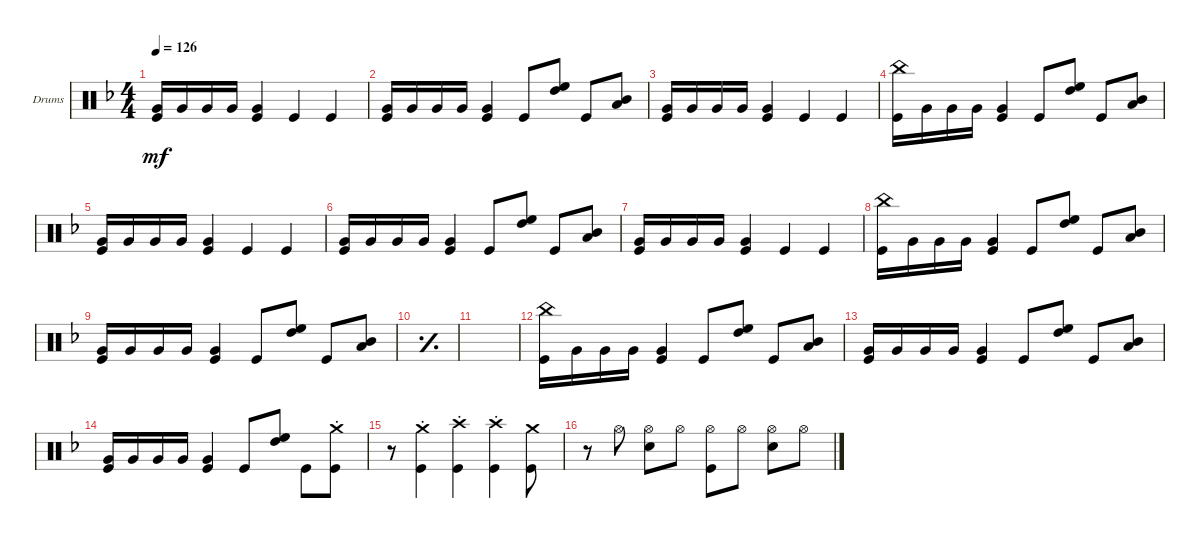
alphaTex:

\defaultSystemsLayout 4
\bracketExtendMode groupsimilarinstruments
\firstSystemTrackNameOrientation horizontal
\otherSystemsTrackNameOrientation horizontal
\track ("Drumkit" "Drums") {instrument percussion}
\staff {score}
\articulation defaults
\ts (4 4)
\tempo 126
\clef neutral
\ks f
("Kick (hit)" "Very Low Tom (hit)").16{dy mf} "Very Low Tom (hit)".16 "Very Low Tom (hit)".16 "Very Low Tom (hit)".16 ("Very Low Tom (hit)" "Kick (hit)").4 "Kick (hit)".4 "Kick (hit)".4 |
("Kick (hit)" "Very Low Tom (hit)").16 "Very Low Tom (hit)".16 "Very Low Tom (hit)".16 "Very Low Tom (hit)".16 ("Kick (hit)" "Very Low Tom (hit)").4 "Kick (hit)".8 ("High Floor Tom (hit)" "High Tom (hit)").8 "Kick (hit)".8 ("Mid Tom (hit)" "Low Tom (hit)").8 |
("Kick (hit)" "Very Low Tom (hit)").16 "Very Low Tom (hit)".16 "Very Low Tom (hit)".16 "Very Low Tom (hit)".16 ("Very Low Tom (hit)" "Kick (hit)").4 "Kick (hit)".4 "Kick (hit)".4 |
("China (hit)" "Kick (hit)").16 "Very Low Tom (hit)".16 "Very Low Tom (hit)".16 "Very Low Tom (hit)".16 ("Kick (hit)" "Very Low Tom (hit)").4 "Kick (hit)".8 ("High Floor Tom (hit)" "High Tom (hit)").8 "Kick (hit)".8 ("Mid Tom (hit)" "Low Tom (hit)").8 |
("Kick (hit)" "Very Low Tom (hit)").16 "Very Low Tom (hit)".16 "Very Low Tom (hit)".16 "Very Low Tom (hit)".16 ("Very Low Tom (hit)" "Kick (hit)").4 "Kick (hit)".4 "Kick (hit)".4 |
("Kick (hit)" "Very Low Tom (hit)").16 "Very Low Tom (hit)".16 "Very Low Tom (hit)".16 "Very Low Tom (hit)".16 ("Kick (hit)" "Very Low Tom (hit)").4 "Kick (hit)".8 ("High Floor Tom (hit)" "High Tom (hit)").8 "Kick (hit)".8 ("Mid Tom (hit)" "Low Tom (hit)").8 |
("Kick (hit)" "Very Low Tom (hit)").16 "Very Low Tom (hit)".16 "Very Low Tom (hit)".16 "Very Low Tom (hit)".16 ("Very Low Tom (hit)" "Kick (hit)").4 "Kick (hit)".4 "Kick (hit)".4 |
("China (hit)" "Kick (hit)").16 "Very Low Tom (hit)".16 "Very Low Tom (hit)".16 "Very Low Tom (hit)".16 ("Kick (hit)" "Very Low Tom (hit)").4 "Kick (hit)".8 ("High Floor Tom (hit)" "High Tom (hit)").8 "Kick (hit)".8 ("Mid Tom (hit)" "Low Tom (hit)").8 |
("Kick (hit)" "Very Low Tom (hit)").16 "Very Low Tom (hit)".16 "Very Low Tom (hit)".16 "Very Low Tom (hit)".16 ("Kick (hit)" "Very Low Tom (hit)").4 "Kick (hit)".8 ("High Floor Tom (hit)" "High Tom (hit)").8 "Kick (hit)".8 ("Mid Tom (hit)" "Low Tom (hit)").8 |
\simile simple
|
|
\simile none
("China (hit)" "Kick (hit)").16 "Very Low Tom (hit)".16 "Very Low Tom (hit)".16 "Very Low Tom (hit)".16 ("Kick (hit)" "Very Low Tom (hit)").4 "Kick (hit)".8 ("High Floor Tom (hit)" "High Tom (hit)").8 "Kick (hit)".8 ("Mid Tom (hit)" "Low Tom (hit)").8 |
("Kick (hit)" "Very Low Tom (hit)").16 "Very Low Tom (hit)".16 "Very Low Tom (hit)".16 "Very Low Tom (hit)".16 ("Kick (hit)" "Very Low Tom (hit)").4 "Kick (hit)".8 ("High Floor Tom (hit)" "High Tom (hit)").8 "Kick (hit)".8 ("Mid Tom (hit)" "Low Tom (hit)").8 |
("Kick (hit)" "Very Low Tom (hit)").16 "Very Low Tom (hit)".16 "Very Low Tom (hit)".16 "Very Low Tom (hit)".16 ("Kick (hit)" "Very Low Tom (hit)").4 "Kick (hit)".8 ("High Floor Tom (hit)" "High Tom (hit)").8 "Kick (hit)".8 ("Kick (hit)" "Crash medium (hit)"{st}).8 |
r.8 ("Crash medium (hit)"{st} "Kick (hit)").4 ("Kick (hit)" "Crash high (hit)"{st}).4 ("Kick (hit)" "Crash high (hit)"{st}).4 ("Crash medium (hit)" "Kick (hit)").8 |
r.8 "Hi-Hat (open)".8 ("Hi-Hat (open)" "Snare (hit) 2").8 "Hi-Hat (open)".8 ("Hi-Hat (open)" "Kick (hit)").8 "Hi-Hat (open)".8 ("Hi-Hat (open)" "Snare (hit) 2").8 "Hi-Hat (open)".8
